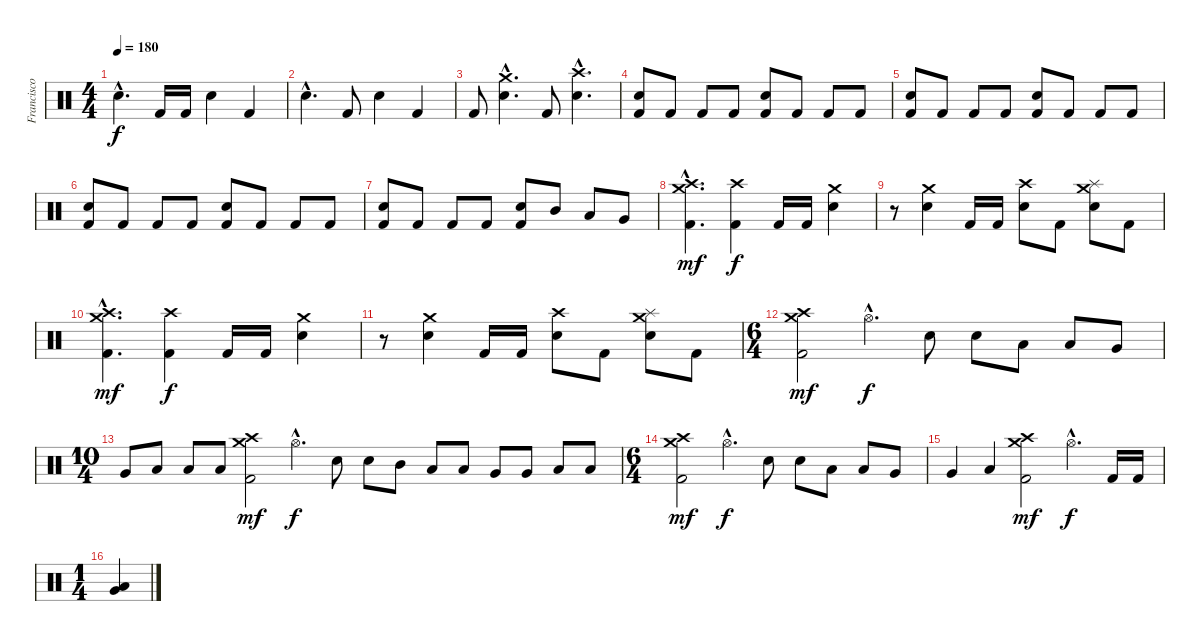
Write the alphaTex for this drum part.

\track ("Francisco Izquierdo (Percusión)" "Francisco ") {instrument percussion}
\staff {score}
\articulation defaults
\ts (4 4)
\tempo 180
\clef neutral
\ks c "Electric Snare (hit)"{hac}.4{d dy f} "Kick (hit) 2".16 "Kick (hit) 2".16 "Electric Snare (hit)".4 "Kick (hit) 2".4
|
"Electric Snare (hit)"{hac}.4{d} "Kick (hit) 2".8 "Electric Snare (hit)".4 "Kick (hit) 2".4 |
"Kick (hit) 2".8 ("Crash medium (hit)"{hac} "Electric Snare (hit)"{hac}).4{d} "Kick (hit) 2".8 ("Crash high (hit)"{hac} "Electric Snare (hit)"{hac}).4{d} |
("Electric Snare (hit)" "Kick (hit) 2").8 "Kick (hit) 2".8 "Kick (hit) 2".8 "Kick (hit) 2".8 ("Electric Snare (hit)" "Kick (hit) 2").8 "Kick (hit) 2".8 "Kick (hit) 2".8 "Kick (hit) 2".8 |
("Electric Snare (hit)" "Kick (hit) 2").8 "Kick (hit) 2".8 "Kick (hit) 2".8 "Kick (hit) 2".8 ("Electric Snare (hit)" "Kick (hit) 2").8 "Kick (hit) 2".8 "Kick (hit) 2".8 "Kick (hit) 2".8 |
("Electric Snare (hit)" "Kick (hit) 2").8 "Kick (hit) 2".8 "Kick (hit) 2".8 "Kick (hit) 2".8 ("Electric Snare (hit)" "Kick (hit) 2").8 "Kick (hit) 2".8 "Kick (hit) 2".8 "Kick (hit) 2".8 |
("Electric Snare (hit)" "Kick (hit) 2").8 "Kick (hit) 2".8 "Kick (hit) 2".8 "Kick (hit) 2".8 ("Electric Snare (hit)" "Kick (hit) 2").8 "Mid Tom (hit)".8 "Low Tom (hit)".8 "Very Low Tom (hit)".8 |
("Crash high (hit)"{hac} "Crash medium (hit)"{hac} "Kick (hit) 2"{hac}).4{d dy mf} ("Crash high (hit)" "Kick (hit) 2").4{dy f} "Kick (hit) 2".16 "Kick (hit) 2".16 ("Crash medium (hit)" "Electric Snare (hit)").4 |
r.8 ("Crash medium (hit)" "Electric Snare (hit)").4 "Kick (hit) 2".16 "Kick (hit) 2".16 ("Crash high (hit)" "Electric Snare (hit)").8 "Kick (hit) 2".8 ("Crash medium (hit)" "Splash (hit)" "Electric Snare (hit)").8 "Kick (hit) 2".8 |
("Crash medium (hit)"{hac} "Crash high (hit)"{hac} "Kick (hit) 2"{hac}).4{d dy mf} ("Crash high (hit)" "Kick (hit) 2").4{dy f} "Kick (hit) 2".16 "Kick (hit) 2".16 ("Crash medium (hit)" "Electric Snare (hit)").4 |
r.8 ("Crash medium (hit)" "Electric Snare (hit)").4 "Kick (hit) 2".16 "Kick (hit) 2".16 ("Crash high (hit)" "Electric Snare (hit)").8 "Kick (hit) 2".8 ("Crash medium (hit)" "Splash (hit)" "Electric Snare (hit)").8 "Kick (hit) 2".8 |
\ts (6 4)
("Crash high (hit)" "Crash medium (hit)" "Kick (hit) 2").2{dy mf} "Hi-Hat (open)"{hac}.4{d dy f} "Electric Snare (hit)".8 "Electric Snare (hit)".8 "Low Tom (hit)".8 "Low Tom (hit)".8 "Very Low Tom (hit)".8 |
\ts (10 4)
"Very Low Tom (hit)".8 "Low Floor Tom (hit)".8 "Low Floor Tom (hit)".8 "Low Floor Tom (hit)".8 ("Crash high (hit)" "Crash medium (hit)" "Kick (hit) 2").2{dy mf} "Hi-Hat (open)"{hac}.4{d dy f} "Electric Snare (hit)".8 "Electric Snare (hit)".8 "Mid Tom (hit)".8 "Low Tom (hit)".8 "Low Tom (hit)".8 "Very Low Tom (hit)".8 "Very Low Tom (hit)".8 "Low Floor Tom (hit)".8 "Low Floor Tom (hit)".8 |
\ts (6 4)
("Crash high (hit)" "Crash medium (hit)" "Kick (hit) 2").2{dy mf} "Hi-Hat (open)"{hac}.4{d dy f} "Electric Snare (hit)".8 "Electric Snare (hit)".8 "Low Tom (hit)".8 "Low Tom (hit)".8 "Very Low Tom (hit)".8 |
"Very Low Tom (hit)".4 "Low Floor Tom (hit)".4 ("Crash high (hit)" "Crash medium (hit)" "Kick (hit) 2").2{dy mf} "Hi-Hat (open)"{hac}.4{d dy f} "Kick (hit) 2".16 "Kick (hit) 2".16 |
\ts (1 4)
("Low Tom (hit)" "Very Low Tom (hit)").4
